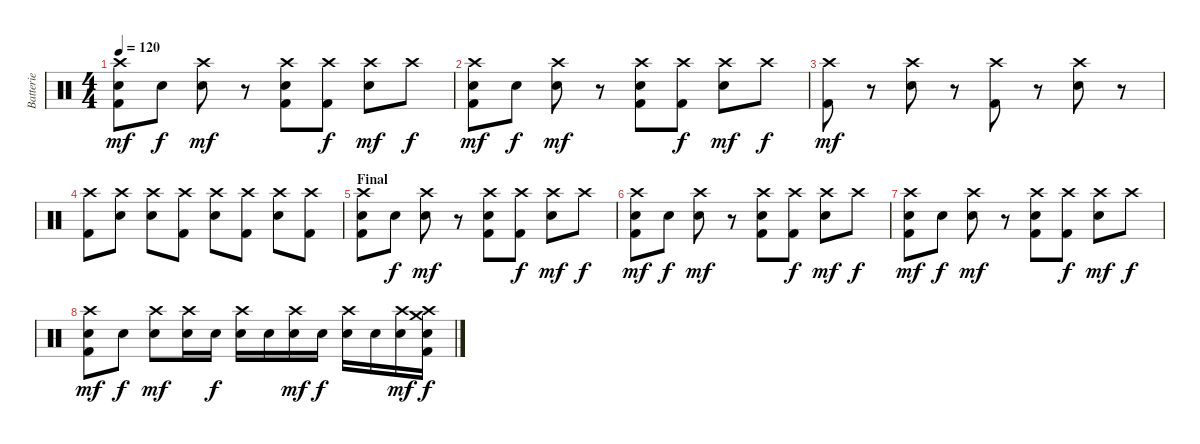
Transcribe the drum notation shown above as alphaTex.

\track ("Batterie" "Batterie") {instrument percussion}
\staff {score}
\articulation defaults
\ts (4 4)
\tempo 120
\clef neutral
\ks c
("Crash high (hit)" "Electric Snare (hit)" "Kick (hit) 2").8{dy mf} "Electric Snare (hit)".8{dy f} ("Crash high (hit)" "Electric Snare (hit)").8{dy mf} r.8 ("Crash high (hit)" "Electric Snare (hit)" "Kick (hit) 2").8 ("Crash high (hit)" "Kick (hit) 2").8{dy f} ("Crash high (hit)" "Electric Snare (hit)").8{dy mf} "Crash high (hit)".8{dy f} |
("Crash high (hit)" "Electric Snare (hit)" "Kick (hit) 2").8{dy mf} "Electric Snare (hit)".8{dy f} ("Crash high (hit)" "Electric Snare (hit)").8{dy mf} r.8 ("Crash high (hit)" "Electric Snare (hit)" "Kick (hit) 2").8 ("Crash high (hit)" "Kick (hit) 2").8{dy f} ("Crash high (hit)" "Electric Snare (hit)").8{dy mf} "Crash high (hit)".8{dy f} |
("Crash high (hit)" "Kick (hit) 2").8{dy mf} r.8 ("Crash high (hit)" "Electric Snare (hit)").8 r.8 ("Crash high (hit)" "Kick (hit) 2").8 r.8 ("Crash high (hit)" "Electric Snare (hit)").8 r.8 |
("Crash high (hit)" "Kick (hit) 2").8 ("Crash high (hit)" "Electric Snare (hit)").8 ("Crash high (hit)" "Electric Snare (hit)").8 ("Crash high (hit)" "Kick (hit) 2").8 ("Crash high (hit)" "Electric Snare (hit)").8 ("Crash high (hit)" "Kick (hit) 2").8 ("Crash high (hit)" "Electric Snare (hit)").8 ("Crash high (hit)" "Kick (hit) 2").8 |
\section ("" "Final")
("Crash high (hit)" "Electric Snare (hit)" "Kick (hit) 2").8 "Electric Snare (hit)".8{dy f} ("Crash high (hit)" "Electric Snare (hit)").8{dy mf} r.8 ("Crash high (hit)" "Electric Snare (hit)" "Kick (hit) 2").8 ("Crash high (hit)" "Kick (hit) 2").8{dy f} ("Crash high (hit)" "Electric Snare (hit)").8{dy mf} "Crash high (hit)".8{dy f} |
("Crash high (hit)" "Electric Snare (hit)" "Kick (hit) 2").8{dy mf} "Electric Snare (hit)".8{dy f} ("Crash high (hit)" "Electric Snare (hit)").8{dy mf} r.8 ("Crash high (hit)" "Electric Snare (hit)" "Kick (hit) 2").8 ("Crash high (hit)" "Kick (hit) 2").8{dy f} ("Crash high (hit)" "Electric Snare (hit)").8{dy mf} "Crash high (hit)".8{dy f} |
("Crash high (hit)" "Electric Snare (hit)" "Kick (hit) 2").8{dy mf} "Electric Snare (hit)".8{dy f} ("Crash high (hit)" "Electric Snare (hit)").8{dy mf} r.8 ("Crash high (hit)" "Electric Snare (hit)" "Kick (hit) 2").8 ("Crash high (hit)" "Kick (hit) 2").8{dy f} ("Crash high (hit)" "Electric Snare (hit)").8{dy mf} "Crash high (hit)".8{dy f} |
("Crash high (hit)" "Electric Snare (hit)" "Kick (hit) 2").8{dy mf} "Electric Snare (hit)".8{dy f} ("Crash high (hit)" "Electric Snare (hit)").8{dy mf} ("Crash high (hit)" "Electric Snare (hit)").16 "Electric Snare (hit)".16{dy f} ("Crash high (hit)" "Electric Snare (hit)").16 "Electric Snare (hit)".16 ("Crash high (hit)" "Electric Snare (hit)").16{dy mf} "Electric Snare (hit)".16{dy f} ("Crash high (hit)" "Electric Snare (hit)").16 "Electric Snare (hit)".16 ("Crash high (hit)" "Electric Snare (hit)").16{dy mf} ("Crash high (hit)" "Crash medium (hit)" "Electric Snare (hit)" "Kick (hit) 2").16{dy f}
